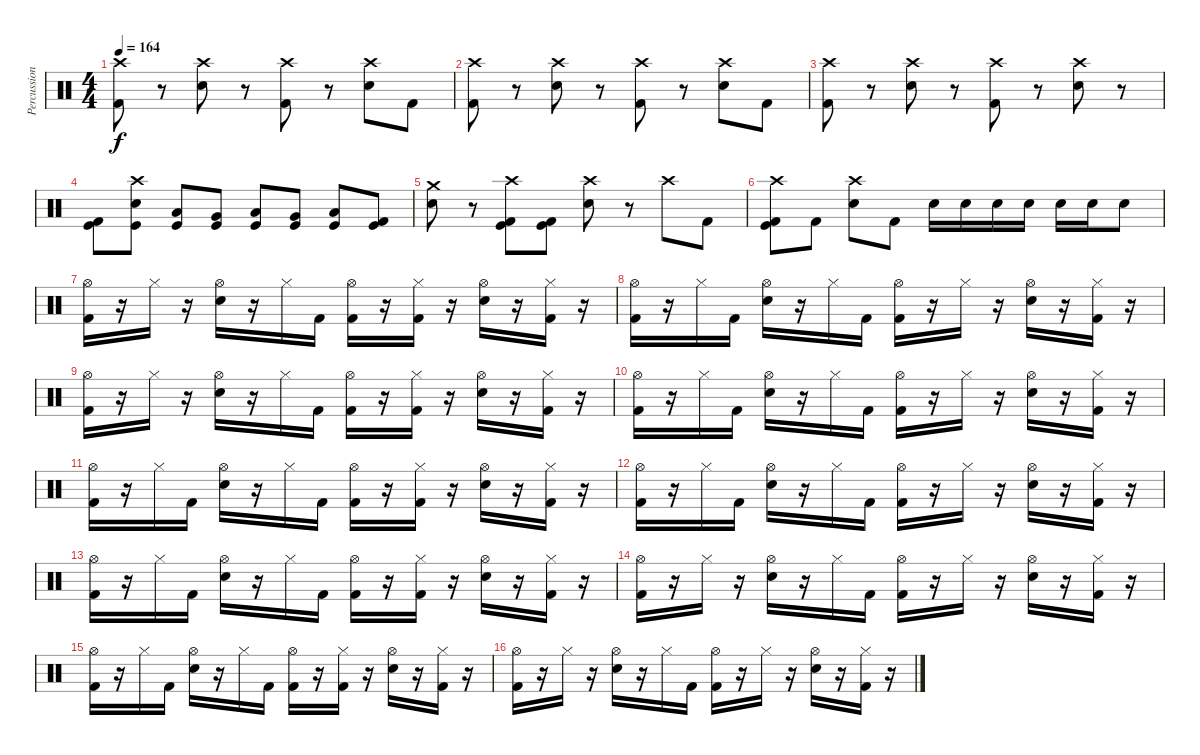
\track ("Percussion" "Percussion") {instrument percussion}
\staff {score}
\articulation defaults
\ts (4 4)
\tempo 164
\clef neutral
\ks c
("Crash high (hit)" "Kick (hit) 2").8{dy f} r.8 ("Crash high (hit)" "Electric Snare (hit)").8 r.8 ("Crash high (hit)" "Kick (hit) 2").8 r.8 ("Crash high (hit)" "Electric Snare (hit)").8 "Kick (hit) 2".8 |
("Crash high (hit)" "Kick (hit) 2").8 r.8 ("Crash high (hit)" "Electric Snare (hit)").8 r.8 ("Crash high (hit)" "Kick (hit) 2").8 r.8 ("Crash high (hit)" "Electric Snare (hit)").8 "Kick (hit) 2".8 |
("Crash high (hit)" "Kick (hit) 2").8 r.8 ("Crash high (hit)" "Electric Snare (hit)").8 r.8 ("Crash high (hit)" "Kick (hit) 2").8 r.8 ("Crash high (hit)" "Electric Snare (hit)").8 r.8 |
("Kick (hit) 2" "Kick (hit)").8 ("Crash high (hit)" "Electric Snare (hit)" "Kick (hit)").8 ("Low Tom (hit)" "Kick (hit)").8 ("Very Low Tom (hit)" "Kick (hit)").8 ("Low Floor Tom (hit)" "Kick (hit)").8 ("Very Low Tom (hit)" "Kick (hit)").8 ("Low Floor Tom (hit)" "Kick (hit)").8 ("Kick (hit) 2" "Kick (hit)").8 |
("Crash medium (hit)" "Electric Snare (hit)").8 r.8 ("Crash high (hit)" "Kick (hit) 2" "Kick (hit)").8 ("Kick (hit) 2" "Kick (hit)").8 ("Crash high (hit)" "Electric Snare (hit)").8 r.8 "Crash high (hit)".8 "Kick (hit) 2".8 |
("Crash high (hit)" "Kick (hit) 2" "Kick (hit)").8 "Kick (hit) 2".8 ("Crash high (hit)" "Electric Snare (hit)").8 "Kick (hit) 2".8 "Electric Snare (hit)".16 "Electric Snare (hit)".16 "Electric Snare (hit)".16 "Electric Snare (hit)".16 "Electric Snare (hit)".16 "Electric Snare (hit)".16 "Electric Snare (hit)".8 |
("Hi-Hat (open)" "Kick (hit) 2").16 r.16 "Hi-Hat (closed)".16 r.16 ("Hi-Hat (open)" "Electric Snare (hit)").16 r.16 "Hi-Hat (closed)".16 "Kick (hit) 2".16 ("Hi-Hat (open)" "Kick (hit) 2").16 r.16 ("Hi-Hat (closed)" "Kick (hit) 2").16 r.16 ("Hi-Hat (open)" "Electric Snare (hit)").16 r.16 ("Hi-Hat (closed)" "Kick (hit) 2").16 r.16 |
("Hi-Hat (open)" "Kick (hit) 2").16 r.16 "Hi-Hat (closed)".16 "Kick (hit) 2".16 ("Hi-Hat (open)" "Electric Snare (hit)").16 r.16 "Hi-Hat (closed)".16 "Kick (hit) 2".16 ("Hi-Hat (open)" "Kick (hit) 2").16 r.16 "Hi-Hat (closed)".16 r.16 ("Hi-Hat (open)" "Electric Snare (hit)").16 r.16 ("Hi-Hat (closed)" "Kick (hit) 2").16 r.16 |
("Hi-Hat (open)" "Kick (hit) 2").16 r.16 "Hi-Hat (closed)".16 r.16 ("Hi-Hat (open)" "Electric Snare (hit)").16 r.16 "Hi-Hat (closed)".16 "Kick (hit) 2".16 ("Hi-Hat (open)" "Kick (hit) 2").16 r.16 ("Hi-Hat (closed)" "Kick (hit) 2").16 r.16 ("Hi-Hat (open)" "Electric Snare (hit)").16 r.16 ("Hi-Hat (closed)" "Kick (hit) 2").16 r.16 |
("Hi-Hat (open)" "Kick (hit) 2").16 r.16 "Hi-Hat (closed)".16 "Kick (hit) 2".16 ("Hi-Hat (open)" "Electric Snare (hit)").16 r.16 "Hi-Hat (closed)".16 "Kick (hit) 2".16 ("Hi-Hat (open)" "Kick (hit) 2").16 r.16 "Hi-Hat (closed)".16 r.16 ("Hi-Hat (open)" "Electric Snare (hit)").16 r.16 ("Hi-Hat (closed)" "Kick (hit) 2").16 r.16 |
("Hi-Hat (open)" "Kick (hit) 2").16 r.16 "Hi-Hat (closed)".16 "Kick (hit) 2".16 ("Hi-Hat (open)" "Electric Snare (hit)").16 r.16 "Hi-Hat (closed)".16 "Kick (hit) 2".16 ("Hi-Hat (open)" "Kick (hit) 2").16 r.16 ("Hi-Hat (closed)" "Kick (hit) 2").16 r.16 ("Hi-Hat (open)" "Electric Snare (hit)").16 r.16 ("Hi-Hat (closed)" "Kick (hit) 2").16 r.16 |
("Hi-Hat (open)" "Kick (hit) 2").16 r.16 "Hi-Hat (closed)".16 "Kick (hit) 2".16 ("Hi-Hat (open)" "Electric Snare (hit)").16 r.16 "Hi-Hat (closed)".16 "Kick (hit) 2".16 ("Hi-Hat (open)" "Kick (hit) 2").16 r.16 "Hi-Hat (closed)".16 r.16 ("Hi-Hat (open)" "Electric Snare (hit)").16 r.16 ("Hi-Hat (closed)" "Kick (hit) 2").16 r.16 |
("Hi-Hat (open)" "Kick (hit) 2").16 r.16 "Hi-Hat (closed)".16 "Kick (hit) 2".16 ("Hi-Hat (open)" "Electric Snare (hit)").16 r.16 "Hi-Hat (closed)".16 "Kick (hit) 2".16 ("Hi-Hat (open)" "Kick (hit) 2").16 r.16 ("Hi-Hat (closed)" "Kick (hit) 2").16 r.16 ("Hi-Hat (open)" "Electric Snare (hit)").16 r.16 ("Hi-Hat (closed)" "Kick (hit) 2").16 r.16 |
("Hi-Hat (open)" "Kick (hit) 2").16 r.16 "Hi-Hat (closed)".16 r.16 ("Hi-Hat (open)" "Electric Snare (hit)").16 r.16 "Hi-Hat (closed)".16 "Kick (hit) 2".16 ("Hi-Hat (open)" "Kick (hit) 2").16 r.16 "Hi-Hat (closed)".16 r.16 ("Hi-Hat (open)" "Electric Snare (hit)").16 r.16 ("Hi-Hat (closed)" "Kick (hit) 2").16 r.16 |
("Hi-Hat (open)" "Kick (hit) 2").16 r.16 "Hi-Hat (closed)".16 "Kick (hit) 2".16 ("Hi-Hat (open)" "Electric Snare (hit)").16 r.16 "Hi-Hat (closed)".16 "Kick (hit) 2".16 ("Hi-Hat (open)" "Kick (hit) 2").16 r.16 ("Hi-Hat (closed)" "Kick (hit) 2").16 r.16 ("Hi-Hat (open)" "Electric Snare (hit)").16 r.16 ("Hi-Hat (closed)" "Kick (hit) 2").16 r.16 |
("Hi-Hat (open)" "Kick (hit) 2").16 r.16 "Hi-Hat (closed)".16 r.16 ("Hi-Hat (open)" "Electric Snare (hit)").16 r.16 "Hi-Hat (closed)".16 "Kick (hit) 2".16 ("Hi-Hat (open)" "Kick (hit) 2").16 r.16 "Hi-Hat (closed)".16 r.16 ("Hi-Hat (open)" "Electric Snare (hit)").16 r.16 ("Hi-Hat (closed)" "Kick (hit) 2").16 r.16
